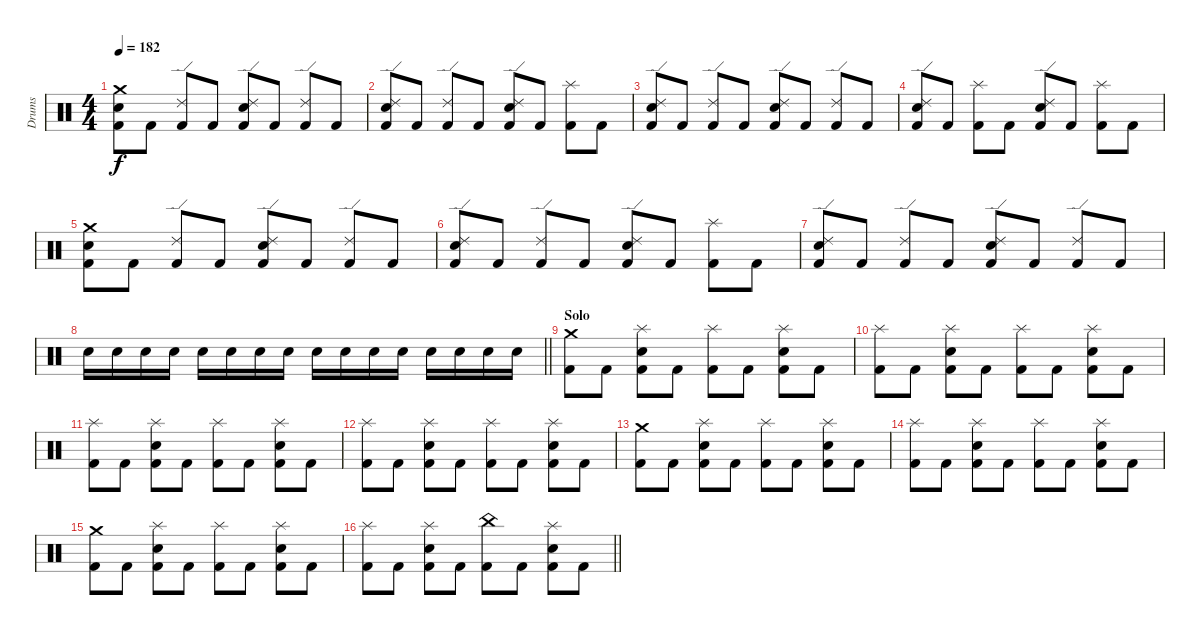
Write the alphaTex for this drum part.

\track ("Drums" "Drums") {instrument percussion}
\staff {score}
\articulation defaults
\ts (4 4)
\section ("" "")
\tempo 182
\clef neutral
\ks c
("Kick (hit) 2" "Snare (hit) 2" "Crash medium (hit)").8{dy f} "Kick (hit) 2".8 ("Kick (hit) 2" "Ride (edge) 2").8 "Kick (hit) 2".8 ("Kick (hit) 2" "Snare (hit) 2" "Ride (edge) 2").8 "Kick (hit) 2".8 ("Kick (hit) 2" "Ride (edge) 2").8 "Kick (hit) 2".8 |
("Kick (hit) 2" "Snare (hit) 2" "Ride (edge) 2").8 "Kick (hit) 2".8 ("Kick (hit) 2" "Ride (edge) 2").8 "Kick (hit) 2".8 ("Kick (hit) 2" "Snare (hit) 2" "Ride (edge) 2").8 "Kick (hit) 2".8 ("Kick (hit) 2" "Splash (hit)").8 "Kick (hit) 2".8 |
("Kick (hit) 2" "Snare (hit) 2" "Ride (edge) 2").8 "Kick (hit) 2".8 ("Kick (hit) 2" "Ride (edge) 2").8 "Kick (hit) 2".8 ("Kick (hit) 2" "Snare (hit) 2" "Ride (edge) 2").8 "Kick (hit) 2".8 ("Kick (hit) 2" "Ride (edge) 2").8 "Kick (hit) 2".8 |
("Kick (hit) 2" "Snare (hit) 2" "Ride (edge) 2").8 "Kick (hit) 2".8 ("Kick (hit) 2" "Splash (hit)").8 "Kick (hit) 2".8 ("Kick (hit) 2" "Snare (hit) 2" "Ride (edge) 2").8 "Kick (hit) 2".8 ("Kick (hit) 2" "Splash (hit)").8 "Kick (hit) 2".8 |
("Kick (hit) 2" "Snare (hit) 2" "Crash medium (hit)").8 "Kick (hit) 2".8 ("Kick (hit) 2" "Ride (edge) 2").8 "Kick (hit) 2".8 ("Kick (hit) 2" "Snare (hit) 2" "Ride (edge) 2").8 "Kick (hit) 2".8 ("Kick (hit) 2" "Ride (edge) 2").8 "Kick (hit) 2".8 |
("Kick (hit) 2" "Snare (hit) 2" "Ride (edge) 2").8 "Kick (hit) 2".8 ("Kick (hit) 2" "Ride (edge) 2").8 "Kick (hit) 2".8 ("Kick (hit) 2" "Snare (hit) 2" "Ride (edge) 2").8 "Kick (hit) 2".8 ("Kick (hit) 2" "Splash (hit)").8 "Kick (hit) 2".8 |
("Kick (hit) 2" "Snare (hit) 2" "Ride (edge) 2").8 "Kick (hit) 2".8 ("Kick (hit) 2" "Ride (edge) 2").8 "Kick (hit) 2".8 ("Kick (hit) 2" "Snare (hit) 2" "Ride (edge) 2").8 "Kick (hit) 2".8 ("Kick (hit) 2" "Ride (edge) 2").8 "Kick (hit) 2".8 |
\barLineRight lightlight "Snare (hit) 2".16 "Snare (hit) 2".16 "Snare (hit) 2".16 "Snare (hit) 2".16 "Snare (hit) 2".16 "Snare (hit) 2".16 "Snare (hit) 2".16 "Snare (hit) 2".16 "Snare (hit) 2".16 "Snare (hit) 2".16 "Snare (hit) 2".16 "Snare (hit) 2".16 "Snare (hit) 2".16 "Snare (hit) 2".16 "Snare (hit) 2".16 "Snare (hit) 2".16
|
\section ("" "Solo")
("Kick (hit) 2" "Crash medium (hit)").8 "Kick (hit) 2".8 ("Kick (hit) 2" "Snare (hit) 2" "Splash (hit)").8 "Kick (hit) 2".8 ("Kick (hit) 2" "Splash (hit)").8 "Kick (hit) 2".8 ("Kick (hit) 2" "Snare (hit) 2" "Splash (hit)").8 "Kick (hit) 2".8 |
("Kick (hit) 2" "Splash (hit)").8 "Kick (hit) 2".8 ("Kick (hit) 2" "Snare (hit) 2" "Splash (hit)").8 "Kick (hit) 2".8 ("Kick (hit) 2" "Splash (hit)").8 "Kick (hit) 2".8 ("Kick (hit) 2" "Snare (hit) 2" "Splash (hit)").8 "Kick (hit) 2".8 |
("Kick (hit) 2" "Splash (hit)").8 "Kick (hit) 2".8 ("Kick (hit) 2" "Snare (hit) 2" "Splash (hit)").8 "Kick (hit) 2".8 ("Kick (hit) 2" "Splash (hit)").8 "Kick (hit) 2".8 ("Kick (hit) 2" "Snare (hit) 2" "Splash (hit)").8 "Kick (hit) 2".8 |
("Kick (hit) 2" "Splash (hit)").8 "Kick (hit) 2".8 ("Kick (hit) 2" "Snare (hit) 2" "Splash (hit)").8 "Kick (hit) 2".8 ("Kick (hit) 2" "Splash (hit)").8 "Kick (hit) 2".8 ("Kick (hit) 2" "Snare (hit) 2" "Splash (hit)").8 "Kick (hit) 2".8 |
("Kick (hit) 2" "Crash medium (hit)").8 "Kick (hit) 2".8 ("Kick (hit) 2" "Snare (hit) 2" "Splash (hit)").8 "Kick (hit) 2".8 ("Kick (hit) 2" "Splash (hit)").8 "Kick (hit) 2".8 ("Kick (hit) 2" "Snare (hit) 2" "Splash (hit)").8 "Kick (hit) 2".8 |
("Kick (hit) 2" "Splash (hit)").8 "Kick (hit) 2".8 ("Kick (hit) 2" "Snare (hit) 2" "Splash (hit)").8 "Kick (hit) 2".8 ("Kick (hit) 2" "Splash (hit)").8 "Kick (hit) 2".8 ("Kick (hit) 2" "Snare (hit) 2" "Splash (hit)").8 "Kick (hit) 2".8 |
("Kick (hit) 2" "Crash medium (hit)").8 "Kick (hit) 2".8 ("Kick (hit) 2" "Snare (hit) 2" "Splash (hit)").8 "Kick (hit) 2".8 ("Kick (hit) 2" "Splash (hit)").8 "Kick (hit) 2".8 ("Kick (hit) 2" "Snare (hit) 2" "Splash (hit)").8 "Kick (hit) 2".8 |
\barLineRight lightlight
("Kick (hit) 2" "Splash (hit)").8 "Kick (hit) 2".8 ("Kick (hit) 2" "Snare (hit) 2" "Splash (hit)").8 "Kick (hit) 2".8 ("Kick (hit) 2" "China (hit)").8 "Kick (hit) 2".8 ("Kick (hit) 2" "Snare (hit) 2" "Splash (hit)").8 "Kick (hit) 2".8
